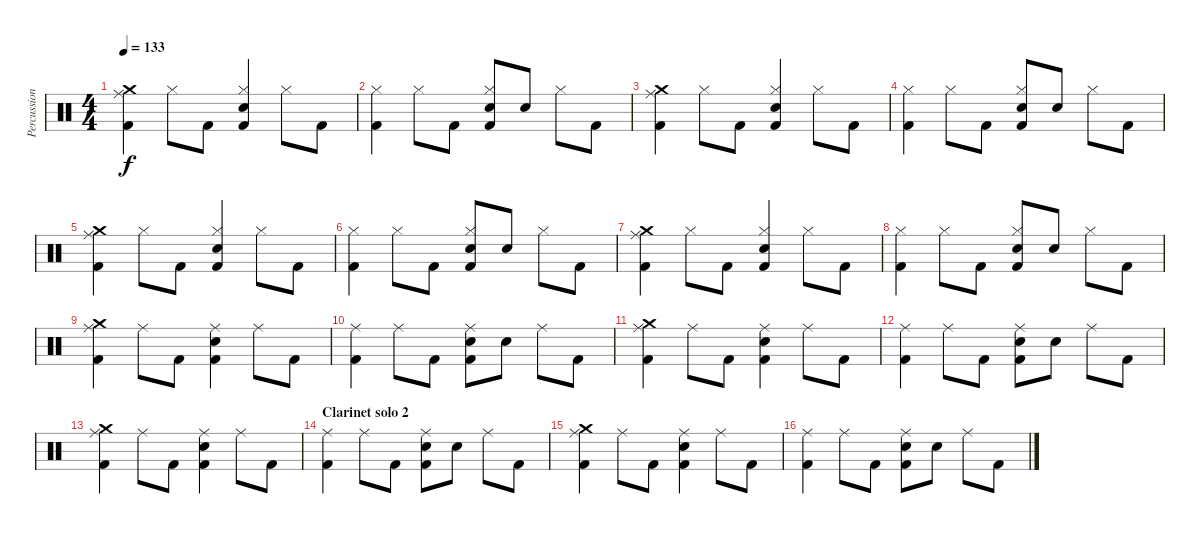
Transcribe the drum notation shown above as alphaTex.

\track ("Percussion" "Percussion") {instrument percussion}
\staff {score}
\articulation defaults
\ts (4 4)
\tempo 133
\clef neutral
\ks c
("Crash medium (hit)" "Ride (middle)" "Kick (hit) 2").4{dy f} "Hi-Hat (closed)".8 "Kick (hit) 2".8 ("Hi-Hat (closed)" "Snare (hit) 2" "Kick (hit) 2").4 "Hi-Hat (closed)".8 "Kick (hit) 2".8 |
("Hi-Hat (closed)" "Kick (hit) 2").4 "Hi-Hat (closed)".8 "Kick (hit) 2".8 ("Hi-Hat (closed)" "Snare (hit) 2" "Kick (hit) 2").8 "Snare (hit) 2".8 "Hi-Hat (closed)".8 "Kick (hit) 2".8 |
("Crash medium (hit)" "Ride (middle)" "Kick (hit) 2").4 "Hi-Hat (closed)".8 "Kick (hit) 2".8 ("Hi-Hat (closed)" "Snare (hit) 2" "Kick (hit) 2").4 "Hi-Hat (closed)".8 "Kick (hit) 2".8 |
("Hi-Hat (closed)" "Kick (hit) 2").4 "Hi-Hat (closed)".8 "Kick (hit) 2".8 ("Hi-Hat (closed)" "Snare (hit) 2" "Kick (hit) 2").8 "Snare (hit) 2".8 "Hi-Hat (closed)".8 "Kick (hit) 2".8 |
("Crash medium (hit)" "Ride (middle)" "Kick (hit) 2").4 "Hi-Hat (closed)".8 "Kick (hit) 2".8 ("Hi-Hat (closed)" "Snare (hit) 2" "Kick (hit) 2").4 "Hi-Hat (closed)".8 "Kick (hit) 2".8 |
("Hi-Hat (closed)" "Kick (hit) 2").4 "Hi-Hat (closed)".8 "Kick (hit) 2".8 ("Hi-Hat (closed)" "Snare (hit) 2" "Kick (hit) 2").8 "Snare (hit) 2".8 "Hi-Hat (closed)".8 "Kick (hit) 2".8 |
("Crash medium (hit)" "Ride (middle)" "Kick (hit) 2").4 "Hi-Hat (closed)".8 "Kick (hit) 2".8 ("Hi-Hat (closed)" "Snare (hit) 2" "Kick (hit) 2").4 "Hi-Hat (closed)".8 "Kick (hit) 2".8 |
("Hi-Hat (closed)" "Kick (hit) 2").4 "Hi-Hat (closed)".8 "Kick (hit) 2".8 ("Hi-Hat (closed)" "Snare (hit) 2" "Kick (hit) 2").8 "Snare (hit) 2".8 "Hi-Hat (closed)".8 "Kick (hit) 2".8 |
("Crash medium (hit)" "Ride (middle)" "Kick (hit) 2").4 "Ride (middle)".8 "Kick (hit) 2".8 ("Ride (middle)" "Snare (hit) 2" "Kick (hit) 2").4 "Ride (middle)".8 "Kick (hit) 2".8 |
("Ride (middle)" "Kick (hit) 2").4 "Ride (middle)".8 "Kick (hit) 2".8 ("Ride (middle)" "Snare (hit) 2" "Kick (hit) 2").8 "Snare (hit) 2".8 "Ride (middle)".8 "Kick (hit) 2".8 |
("Crash medium (hit)" "Ride (middle)" "Kick (hit) 2").4 "Ride (middle)".8 "Kick (hit) 2".8 ("Ride (middle)" "Snare (hit) 2" "Kick (hit) 2").4 "Ride (middle)".8 "Kick (hit) 2".8 |
("Ride (middle)" "Kick (hit) 2").4 "Ride (middle)".8 "Kick (hit) 2".8 ("Ride (middle)" "Snare (hit) 2" "Kick (hit) 2").8 "Snare (hit) 2".8 "Ride (middle)".8 "Kick (hit) 2".8 |
("Crash medium (hit)" "Ride (middle)" "Kick (hit) 2").4 "Ride (middle)".8 "Kick (hit) 2".8 ("Ride (middle)" "Snare (hit) 2" "Kick (hit) 2").4 "Ride (middle)".8 "Kick (hit) 2".8 |
\section ("" "Clarinet solo 2")
("Ride (middle)" "Kick (hit) 2").4 "Ride (middle)".8 "Kick (hit) 2".8 ("Ride (middle)" "Snare (hit) 2" "Kick (hit) 2").8 "Snare (hit) 2".8 "Ride (middle)".8 "Kick (hit) 2".8 |
("Crash medium (hit)" "Ride (middle)" "Kick (hit) 2").4 "Ride (middle)".8 "Kick (hit) 2".8 ("Ride (middle)" "Snare (hit) 2" "Kick (hit) 2").4 "Ride (middle)".8 "Kick (hit) 2".8 |
("Ride (middle)" "Kick (hit) 2").4 "Ride (middle)".8 "Kick (hit) 2".8 ("Ride (middle)" "Snare (hit) 2" "Kick (hit) 2").8 "Snare (hit) 2".8 "Ride (middle)".8 "Kick (hit) 2".8
